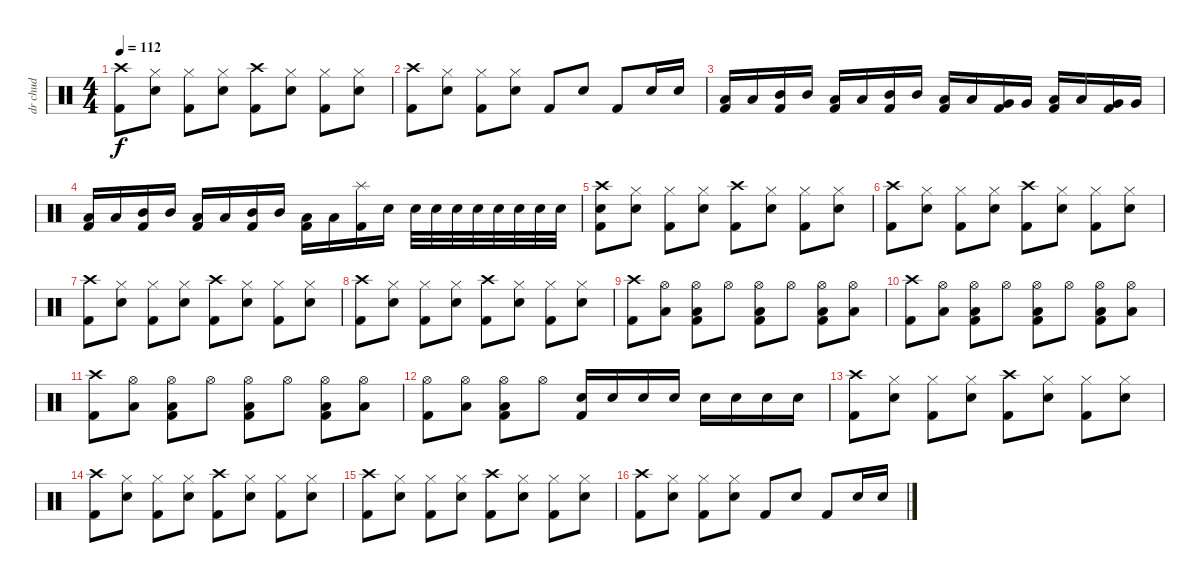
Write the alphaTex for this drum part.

\track ("dr chud" "dr chud") {instrument percussion}
\staff {score}
\articulation defaults
\ts (4 4)
\tempo 112
\clef neutral
\ks c
("Crash high (hit)" "Kick (hit) 2").8{dy f} ("Hi-Hat (closed)" "Electric Snare (hit)").8 ("Hi-Hat (closed)" "Kick (hit) 2").8 ("Hi-Hat (closed)" "Electric Snare (hit)").8 ("Crash high (hit)" "Kick (hit) 2").8 ("Hi-Hat (closed)" "Electric Snare (hit)").8 ("Hi-Hat (closed)" "Kick (hit) 2").8 ("Hi-Hat (closed)" "Electric Snare (hit)").8 |
("Crash high (hit)" "Kick (hit) 2").8 ("Hi-Hat (closed)" "Electric Snare (hit)").8 ("Hi-Hat (closed)" "Kick (hit) 2").8 ("Hi-Hat (closed)" "Electric Snare (hit)").8 "Kick (hit) 2".8 "Electric Snare (hit)".8 "Kick (hit) 2".8 "Electric Snare (hit)".16 "Electric Snare (hit)".16 |
("Low Tom (hit)" "Kick (hit) 2").16 "Low Tom (hit)".16 ("Mid Tom (hit)" "Kick (hit) 2").16 "Mid Tom (hit)".16 ("Low Tom (hit)" "Kick (hit) 2").16 "Low Tom (hit)".16 ("Mid Tom (hit)" "Kick (hit) 2").16 "Mid Tom (hit)".16 ("Low Tom (hit)" "Kick (hit) 2").16 "Low Tom (hit)".16 ("Very Low Tom (hit)" "Kick (hit) 2").16 "Very Low Tom (hit)".16 ("Low Tom (hit)" "Kick (hit) 2").16 "Low Tom (hit)".16 ("Very Low Tom (hit)" "Kick (hit) 2").16 "Very Low Tom (hit)".16 |
("Low Tom (hit)" "Kick (hit) 2").16 "Low Tom (hit)".16 ("Mid Tom (hit)" "Kick (hit) 2").16 "Mid Tom (hit)".16 ("Low Tom (hit)" "Kick (hit) 2").16 "Low Tom (hit)".16 ("Mid Tom (hit)" "Kick (hit) 2").16 "Mid Tom (hit)".16 ("Low Tom (hit)" "Kick (hit) 2").16 "Low Tom (hit)".16 ("Splash (hit)" "Kick (hit) 2").16 "Electric Snare (hit)".16 "Electric Snare (hit)".32 "Electric Snare (hit)".32 "Electric Snare (hit)".32 "Electric Snare (hit)".32 "Electric Snare (hit)".32 "Electric Snare (hit)".32 "Electric Snare (hit)".32 "Electric Snare (hit)".32 |
("Crash high (hit)" "Electric Snare (hit)" "Kick (hit) 2").8 ("Hi-Hat (closed)" "Electric Snare (hit)").8 ("Hi-Hat (closed)" "Kick (hit) 2").8 ("Hi-Hat (closed)" "Electric Snare (hit)").8 ("Crash high (hit)" "Kick (hit) 2").8 ("Hi-Hat (closed)" "Electric Snare (hit)").8 ("Hi-Hat (closed)" "Kick (hit) 2").8 ("Hi-Hat (closed)" "Electric Snare (hit)").8 |
("Crash high (hit)" "Kick (hit) 2").8 ("Hi-Hat (closed)" "Electric Snare (hit)").8 ("Hi-Hat (closed)" "Kick (hit) 2").8 ("Hi-Hat (closed)" "Electric Snare (hit)").8 ("Crash high (hit)" "Kick (hit) 2").8 ("Hi-Hat (closed)" "Electric Snare (hit)").8 ("Hi-Hat (closed)" "Kick (hit) 2").8 ("Hi-Hat (closed)" "Electric Snare (hit)").8 |
("Crash high (hit)" "Kick (hit) 2").8 ("Hi-Hat (closed)" "Electric Snare (hit)").8 ("Hi-Hat (closed)" "Kick (hit) 2").8 ("Hi-Hat (closed)" "Electric Snare (hit)").8 ("Crash high (hit)" "Kick (hit) 2").8 ("Hi-Hat (closed)" "Electric Snare (hit)").8 ("Hi-Hat (closed)" "Kick (hit) 2").8 ("Hi-Hat (closed)" "Electric Snare (hit)").8 |
("Crash high (hit)" "Kick (hit) 2").8 ("Hi-Hat (closed)" "Electric Snare (hit)").8 ("Hi-Hat (closed)" "Kick (hit) 2").8 ("Hi-Hat (closed)" "Electric Snare (hit)").8 ("Crash high (hit)" "Kick (hit) 2").8 ("Hi-Hat (closed)" "Electric Snare (hit)").8 ("Hi-Hat (closed)" "Kick (hit) 2").8 ("Hi-Hat (closed)" "Electric Snare (hit)").8 |
("Crash high (hit)" "Kick (hit) 2").8 ("Hi-Hat (open)" "Low Tom (hit)").8 ("Hi-Hat (open)" "Low Tom (hit)" "Kick (hit) 2").8 "Hi-Hat (open)".8 ("Hi-Hat (open)" "Low Tom (hit)" "Kick (hit) 2").8 "Hi-Hat (open)".8 ("Hi-Hat (open)" "Low Tom (hit)" "Kick (hit) 2").8 ("Hi-Hat (open)" "Low Tom (hit)").8 |
("Crash high (hit)" "Kick (hit) 2").8 ("Hi-Hat (open)" "Low Tom (hit)").8 ("Hi-Hat (open)" "Low Tom (hit)" "Kick (hit) 2").8 "Hi-Hat (open)".8 ("Hi-Hat (open)" "Low Tom (hit)" "Kick (hit) 2").8 "Hi-Hat (open)".8 ("Hi-Hat (open)" "Low Tom (hit)" "Kick (hit) 2").8 ("Hi-Hat (open)" "Low Tom (hit)").8 |
("Crash high (hit)" "Kick (hit) 2").8 ("Hi-Hat (open)" "Low Tom (hit)").8 ("Hi-Hat (open)" "Low Tom (hit)" "Kick (hit) 2").8 "Hi-Hat (open)".8 ("Hi-Hat (open)" "Low Tom (hit)" "Kick (hit) 2").8 "Hi-Hat (open)".8 ("Hi-Hat (open)" "Low Tom (hit)" "Kick (hit) 2").8 ("Hi-Hat (open)" "Low Tom (hit)").8 |
("Hi-Hat (open)" "Kick (hit) 2").8 ("Hi-Hat (open)" "Low Tom (hit)").8 ("Hi-Hat (open)" "Low Tom (hit)" "Kick (hit) 2").8 "Hi-Hat (open)".8 ("Electric Snare (hit)" "Kick (hit) 2").16 "Electric Snare (hit)".16 "Electric Snare (hit)".16 "Electric Snare (hit)".16 "Electric Snare (hit)".16 "Electric Snare (hit)".16 "Electric Snare (hit)".16 "Electric Snare (hit)".16 |
("Crash high (hit)" "Kick (hit) 2").8 ("Hi-Hat (closed)" "Electric Snare (hit)").8 ("Hi-Hat (closed)" "Kick (hit) 2").8 ("Hi-Hat (closed)" "Electric Snare (hit)").8 ("Crash high (hit)" "Kick (hit) 2").8 ("Hi-Hat (closed)" "Electric Snare (hit)").8 ("Hi-Hat (closed)" "Kick (hit) 2").8 ("Hi-Hat (closed)" "Electric Snare (hit)").8 |
("Crash high (hit)" "Kick (hit) 2").8 ("Hi-Hat (closed)" "Electric Snare (hit)").8 ("Hi-Hat (closed)" "Kick (hit) 2").8 ("Hi-Hat (closed)" "Electric Snare (hit)").8 ("Crash high (hit)" "Kick (hit) 2").8 ("Hi-Hat (closed)" "Electric Snare (hit)").8 ("Hi-Hat (closed)" "Kick (hit) 2").8 ("Hi-Hat (closed)" "Electric Snare (hit)").8 |
("Crash high (hit)" "Kick (hit) 2").8 ("Hi-Hat (closed)" "Electric Snare (hit)").8 ("Hi-Hat (closed)" "Kick (hit) 2").8 ("Hi-Hat (closed)" "Electric Snare (hit)").8 ("Crash high (hit)" "Kick (hit) 2").8 ("Hi-Hat (closed)" "Electric Snare (hit)").8 ("Hi-Hat (closed)" "Kick (hit) 2").8 ("Hi-Hat (closed)" "Electric Snare (hit)").8 |
("Crash high (hit)" "Kick (hit) 2").8 ("Hi-Hat (closed)" "Electric Snare (hit)").8 ("Hi-Hat (closed)" "Kick (hit) 2").8 ("Hi-Hat (closed)" "Electric Snare (hit)").8 "Kick (hit) 2".8 "Electric Snare (hit)".8 "Kick (hit) 2".8 "Electric Snare (hit)".16 "Electric Snare (hit)".16
